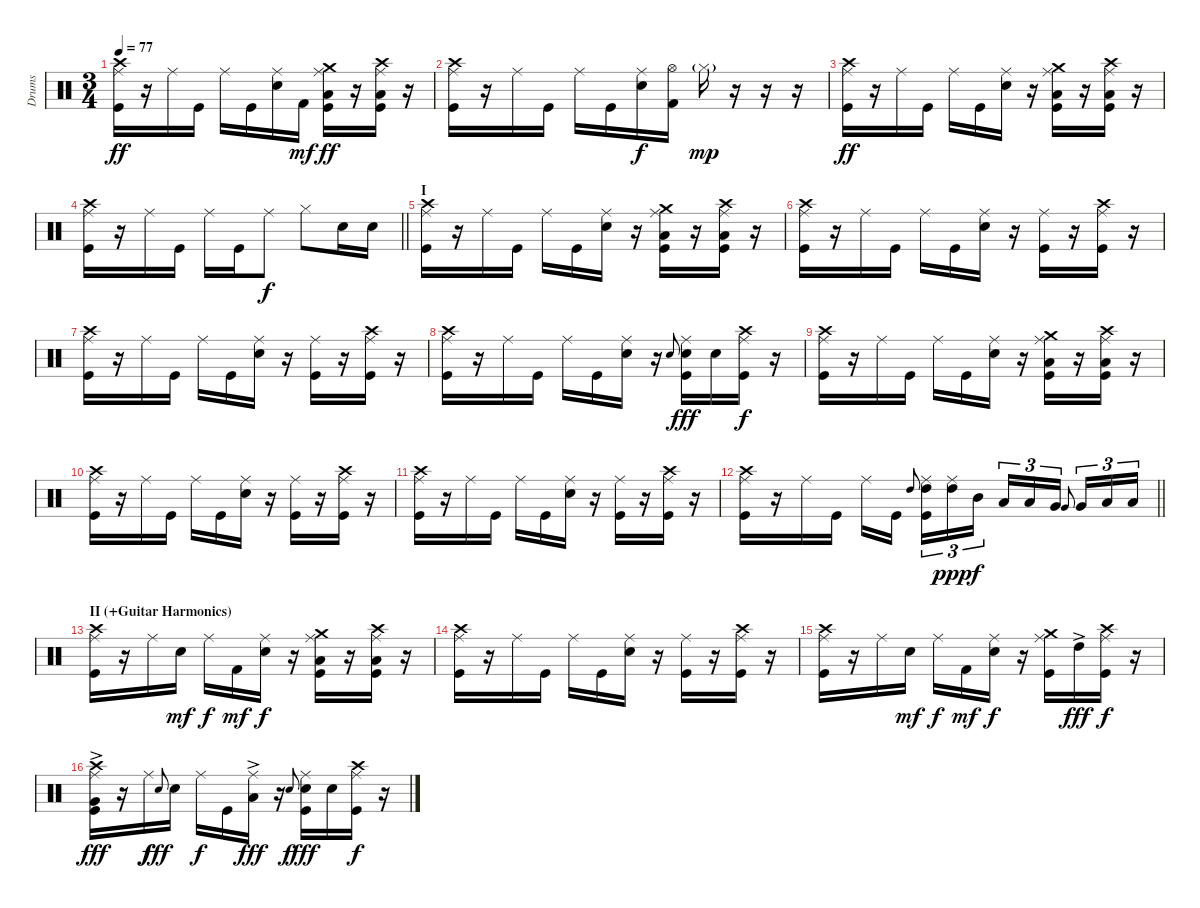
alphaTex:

\track ("Drums" "Drums") {instrument percussion}
\staff {score}
\articulation defaults
\ts (3 4)
\tempo 77
\clef neutral
\ks c
("Crash high (hit)" "Ride (middle)" "Kick (hit)").16{dy ff} r.16 "Ride (middle)".16 "Kick (hit)".16 "Ride (middle)".16 "Kick (hit)".16 ("Electric Snare (hit)" "Ride (middle)").16 "Kick (hit) 2".16{dy mf} ("Kick (hit)" "Low Tom (hit)" "Crash medium (hit)" "Ride (middle)").16{dy ff} r.16 ("Low Floor Tom (hit)" "Kick (hit)" "Crash high (hit)" "Ride (middle)").16 r.16 |
("Crash high (hit)" "Ride (middle)" "Kick (hit)").16 r.16 "Ride (middle)".16 "Kick (hit)".16 "Ride (middle)".16 "Kick (hit)".16 ("Ride (middle)" "Electric Snare (hit)").16{dy f} ("Hi-Hat (open)" "Kick (hit) 2").16 "Hi-Hat (closed)"{g}.16{dy mp} r.16 r.16 r.16 |
("Crash high (hit)" "Ride (middle)" "Kick (hit)").16{dy ff} r.16 "Ride (middle)".16 "Kick (hit)".16 "Ride (middle)".16 "Kick (hit)".16 ("Electric Snare (hit)" "Ride (middle)").16 r.16 ("Kick (hit)" "Low Tom (hit)" "Crash medium (hit)" "Ride (middle)").16 r.16 ("Low Floor Tom (hit)" "Kick (hit)" "Crash high (hit)" "Ride (middle)").16 r.16 |
\barLineRight lightlight
("Crash high (hit)" "Ride (middle)" "Kick (hit)").16 r.16 "Ride (middle)".16 "Kick (hit)".16 "Ride (middle)".16 "Kick (hit)".16 "Ride (middle)".8{dy f} "Hi-Hat (closed)".8 "Electric Snare (hit)".16 "Electric Snare (hit)".16 |
\section ("" "I")
("Crash high (hit)" "Ride (middle)" "Kick (hit)").16{volume 16} r.16 "Ride (middle)".16 "Kick (hit)".16 "Ride (middle)".16 "Kick (hit)".16 ("Electric Snare (hit)" "Ride (middle)").16 r.16 ("Kick (hit)" "Low Tom (hit)" "Crash medium (hit)" "Ride (middle)").16 r.16 ("Low Floor Tom (hit)" "Kick (hit)" "Crash high (hit)" "Ride (middle)").16 r.16 |
("Crash high (hit)" "Ride (middle)" "Kick (hit)").16 r.16 "Ride (middle)".16 "Kick (hit)".16 "Ride (middle)".16 "Kick (hit)".16 ("Electric Snare (hit)" "Ride (middle)").16 r.16 ("Kick (hit)" "Ride (middle)").16 r.16 ("Kick (hit)" "Crash high (hit)" "Ride (middle)").16 r.16 |
("Crash high (hit)" "Ride (middle)" "Kick (hit)").16 r.16 "Ride (middle)".16 "Kick (hit)".16 "Ride (middle)".16 "Kick (hit)".16 ("Electric Snare (hit)" "Ride (middle)").16 r.16 ("Kick (hit)" "Ride (middle)").16 r.16 ("Kick (hit)" "Crash high (hit)" "Ride (middle)").16 r.16 |
("Crash high (hit)" "Ride (middle)" "Kick (hit)").16 r.16 "Ride (middle)".16 "Kick (hit)".16 "Ride (middle)".16 "Kick (hit)".16 ("Electric Snare (hit)" "Ride (middle)").16 r.16 "Electric Snare (hit)".8{gr onbeat} ("Kick (hit)" "Electric Snare (hit)" "Ride (middle)").16{dy fff} "Electric Snare (hit)".16 ("Kick (hit)" "Crash high (hit)" "Ride (middle)").16{dy f} r.16 |
("Crash high (hit)" "Ride (middle)" "Kick (hit)").16 r.16 "Ride (middle)".16 "Kick (hit)".16 "Ride (middle)".16 "Kick (hit)".16 ("Electric Snare (hit)" "Ride (middle)").16 r.16 ("Kick (hit)" "Low Tom (hit)" "Crash medium (hit)" "Ride (middle)").16 r.16 ("Low Floor Tom (hit)" "Kick (hit)" "Crash high (hit)" "Ride (middle)").16 r.16 |
("Crash high (hit)" "Ride (middle)" "Kick (hit)").16 r.16 "Ride (middle)".16 "Kick (hit)".16 "Ride (middle)".16 "Kick (hit)".16 ("Electric Snare (hit)" "Ride (middle)").16 r.16 ("Kick (hit)" "Ride (middle)").16 r.16 ("Kick (hit)" "Crash high (hit)" "Ride (middle)").16 r.16 |
("Crash high (hit)" "Ride (middle)" "Kick (hit)").16 r.16 "Ride (middle)".16 "Kick (hit)".16 "Ride (middle)".16 "Kick (hit)".16 ("Electric Snare (hit)" "Ride (middle)").16 r.16 ("Kick (hit)" "Ride (middle)").16 r.16 ("Kick (hit)" "Crash high (hit)" "Ride (middle)").16 r.16 |
\barLineRight lightlight
("Crash high (hit)" "Ride (middle)" "Kick (hit)").16 r.16 "Ride (middle)".16 "Kick (hit)".16 "Ride (middle)".16 "Kick (hit)".16 "High Tom (hit)".8{gr onbeat beam splitsecondary} ("Ride (middle)" "Kick (hit)" "High Tom (hit)").16{tu (3 2)} ("High Tom (hit)" "Ride (middle)").16{tu (3 2) dy ppp} "Mid Tom (hit)".16{tu (3 2) dy f} "Low Tom (hit)".16{tu (3 2)} "Low Tom (hit)".16{tu (3 2)} "Very Low Tom (hit)".16{tu (3 2)} "Very Low Tom (hit)".8{gr onbeat beam splitsecondary} "Very Low Tom (hit)".16{tu (3 2)} "Low Floor Tom (hit)".16{tu (3 2)} "Low Floor Tom (hit)".16{tu (3 2)} |
\section ("" "II (+Guitar Harmonics)")
("Crash high (hit)" "Ride (middle)" "Kick (hit)").16{volume 16} r.16 "Ride (middle)".16 "Electric Snare (hit)".16{dy mf} "Ride (middle)".16{dy f} "Kick (hit) 2".16{dy mf} ("Electric Snare (hit)" "Ride (middle)").16{dy f} r.16 ("Kick (hit)" "Low Tom (hit)" "Crash medium (hit)" "Ride (middle)").16 r.16 ("Low Floor Tom (hit)" "Kick (hit)" "Crash high (hit)" "Ride (middle)").16 r.16 |
("Crash high (hit)" "Ride (middle)" "Kick (hit)").16 r.16 "Ride (middle)".16 "Kick (hit)".16 "Ride (middle)".16 "Kick (hit)".16 ("Electric Snare (hit)" "Ride (middle)").16 r.16 ("Kick (hit)" "Ride (middle)").16 r.16 ("Kick (hit)" "Crash high (hit)" "Ride (middle)").16 r.16 |
("Crash high (hit)" "Ride (middle)" "Kick (hit)").16{volume 16} r.16 "Ride (middle)".16 "Electric Snare (hit)".16{dy mf} "Ride (middle)".16{dy f} "Kick (hit) 2".16{dy mf} ("Electric Snare (hit)" "Ride (middle)").16{dy f} r.16 ("Kick (hit)" "Crash medium (hit)" "Ride (middle)").16 "High Tom (hit)"{ac}.16{dy fff} ("Kick (hit)" "Crash high (hit)" "Ride (middle)").16{dy f} r.16 |
("Crash high (hit)" "Very Low Tom (hit)"{ac} "Ride (middle)" "Kick (hit)").16{dy fff} r.16 "Ride (middle)".16{dy f} "Electric Snare (hit)".8{gr onbeat dy fff} "Electric Snare (hit)".16 "Ride (middle)".16{dy f} "Kick (hit)".16 ("Low Floor Tom (hit)"{ac} "Ride (middle)").16{dy fff} r.16 "Electric Snare (hit)".8{gr onbeat dy f} ("Kick (hit)" "Electric Snare (hit)" "Ride (middle)").16{dy fff} "Electric Snare (hit)".16 ("Kick (hit)" "Crash high (hit)" "Ride (middle)").16{dy f} r.16
